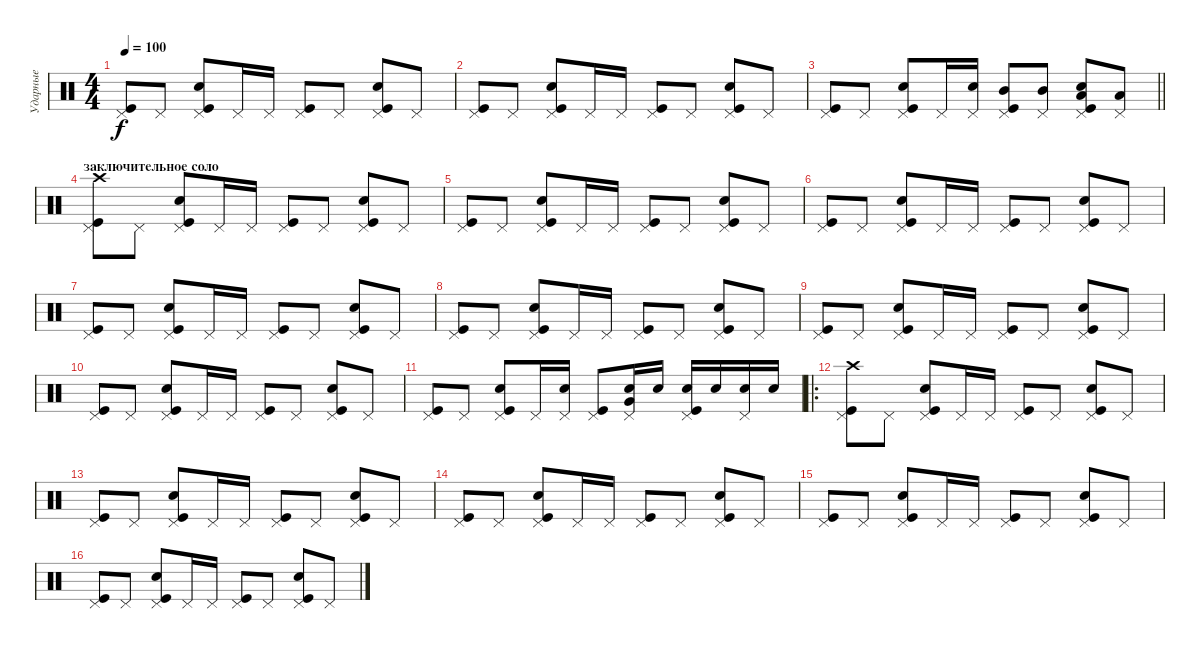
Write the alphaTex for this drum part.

\track ("Ударные" "Ударные") {instrument percussion}
\staff {score}
\articulation defaults
\ts (4 4)
\tempo 100
\clef neutral
\ks c
("Kick (hit)" "Pedal Hi-Hat (hit)").8{dy f} "Pedal Hi-Hat (hit)".8 ("Kick (hit)" "Snare (hit) 2" "Pedal Hi-Hat (hit)").8 "Pedal Hi-Hat (hit)".16 "Pedal Hi-Hat (hit)".16 ("Kick (hit)" "Pedal Hi-Hat (hit)").8 "Pedal Hi-Hat (hit)".8 ("Kick (hit)" "Snare (hit) 2" "Pedal Hi-Hat (hit)").8 "Pedal Hi-Hat (hit)".8 |
("Pedal Hi-Hat (hit)" "Kick (hit)").8 "Pedal Hi-Hat (hit)".8 ("Pedal Hi-Hat (hit)" "Kick (hit)" "Snare (hit) 2").8 "Pedal Hi-Hat (hit)".16 "Pedal Hi-Hat (hit)".16 ("Pedal Hi-Hat (hit)" "Kick (hit)").8 "Pedal Hi-Hat (hit)".8 ("Pedal Hi-Hat (hit)" "Kick (hit)" "Snare (hit) 2").8 "Pedal Hi-Hat (hit)".8 |
\barLineRight lightlight
("Pedal Hi-Hat (hit)" "Kick (hit)").8 "Pedal Hi-Hat (hit)".8 ("Pedal Hi-Hat (hit)" "Kick (hit)" "Snare (hit) 2").8 "Pedal Hi-Hat (hit)".16 ("Pedal Hi-Hat (hit)" "Snare (hit) 2").16 ("Pedal Hi-Hat (hit)" "Kick (hit)" "Mid Tom (hit)").8 ("Pedal Hi-Hat (hit)" "Mid Tom (hit)").8 ("Pedal Hi-Hat (hit)" "Kick (hit)" "Snare (hit) 2" "Low Tom (hit)").8 ("Pedal Hi-Hat (hit)" "Low Tom (hit)").8 |
\section ("" "заключительное соло")
("Pedal Hi-Hat (hit)" "Kick (hit)" "Crash high (hit)").8 "Pedal Hi-Hat (hit)".8 ("Pedal Hi-Hat (hit)" "Kick (hit)" "Snare (hit) 2").8 "Pedal Hi-Hat (hit)".16 "Pedal Hi-Hat (hit)".16 ("Pedal Hi-Hat (hit)" "Kick (hit)").8 "Pedal Hi-Hat (hit)".8 ("Pedal Hi-Hat (hit)" "Kick (hit)" "Snare (hit) 2").8 "Pedal Hi-Hat (hit)".8 |
("Pedal Hi-Hat (hit)" "Kick (hit)").8 "Pedal Hi-Hat (hit)".8 ("Pedal Hi-Hat (hit)" "Kick (hit)" "Snare (hit) 2").8 "Pedal Hi-Hat (hit)".16 "Pedal Hi-Hat (hit)".16 ("Pedal Hi-Hat (hit)" "Kick (hit)").8 "Pedal Hi-Hat (hit)".8 ("Pedal Hi-Hat (hit)" "Kick (hit)" "Snare (hit) 2").8 "Pedal Hi-Hat (hit)".8 |
("Pedal Hi-Hat (hit)" "Kick (hit)").8 "Pedal Hi-Hat (hit)".8 ("Pedal Hi-Hat (hit)" "Kick (hit)" "Snare (hit) 2").8 "Pedal Hi-Hat (hit)".16 "Pedal Hi-Hat (hit)".16 ("Pedal Hi-Hat (hit)" "Kick (hit)").8 "Pedal Hi-Hat (hit)".8 ("Pedal Hi-Hat (hit)" "Kick (hit)" "Snare (hit) 2").8 "Pedal Hi-Hat (hit)".8 |
("Pedal Hi-Hat (hit)" "Kick (hit)").8 "Pedal Hi-Hat (hit)".8 ("Pedal Hi-Hat (hit)" "Kick (hit)" "Snare (hit) 2").8 "Pedal Hi-Hat (hit)".16 "Pedal Hi-Hat (hit)".16 ("Pedal Hi-Hat (hit)" "Kick (hit)").8 "Pedal Hi-Hat (hit)".8 ("Pedal Hi-Hat (hit)" "Kick (hit)" "Snare (hit) 2").8 "Pedal Hi-Hat (hit)".8 |
("Pedal Hi-Hat (hit)" "Kick (hit)").8 "Pedal Hi-Hat (hit)".8 ("Pedal Hi-Hat (hit)" "Kick (hit)" "Snare (hit) 2").8 "Pedal Hi-Hat (hit)".16 "Pedal Hi-Hat (hit)".16 ("Pedal Hi-Hat (hit)" "Kick (hit)").8 "Pedal Hi-Hat (hit)".8 ("Pedal Hi-Hat (hit)" "Kick (hit)" "Snare (hit) 2").8 "Pedal Hi-Hat (hit)".8 |
("Pedal Hi-Hat (hit)" "Kick (hit)").8 "Pedal Hi-Hat (hit)".8 ("Pedal Hi-Hat (hit)" "Kick (hit)" "Snare (hit) 2").8 "Pedal Hi-Hat (hit)".16 "Pedal Hi-Hat (hit)".16 ("Pedal Hi-Hat (hit)" "Kick (hit)").8 "Pedal Hi-Hat (hit)".8 ("Pedal Hi-Hat (hit)" "Kick (hit)" "Snare (hit) 2").8 "Pedal Hi-Hat (hit)".8 |
("Kick (hit)" "Pedal Hi-Hat (hit)").8 "Pedal Hi-Hat (hit)".8 ("Kick (hit)" "Snare (hit) 2" "Pedal Hi-Hat (hit)").8 "Pedal Hi-Hat (hit)".16 "Pedal Hi-Hat (hit)".16 ("Kick (hit)" "Pedal Hi-Hat (hit)").8 "Pedal Hi-Hat (hit)".8 ("Kick (hit)" "Snare (hit) 2" "Pedal Hi-Hat (hit)").8 "Pedal Hi-Hat (hit)".8 |
("Kick (hit)" "Pedal Hi-Hat (hit)").8 "Pedal Hi-Hat (hit)".8 ("Kick (hit)" "Snare (hit) 2" "Pedal Hi-Hat (hit)").8 "Pedal Hi-Hat (hit)".16 ("Snare (hit) 2" "Pedal Hi-Hat (hit)").16 ("Kick (hit)" "Pedal Hi-Hat (hit)").8 ("Snare (hit) 2" "Very Low Tom (hit)" "Pedal Hi-Hat (hit)").16 "Snare (hit) 2".16 ("Snare (hit) 2" "Kick (hit)" "Pedal Hi-Hat (hit)").16 "Snare (hit) 2".16 ("Snare (hit) 2" "Pedal Hi-Hat (hit)").16 "Snare (hit) 2".16 |
\ro
("Kick (hit)" "Crash high (hit)" "Pedal Hi-Hat (hit)").8 "Pedal Hi-Hat (hit)".8 ("Kick (hit)" "Snare (hit) 2" "Pedal Hi-Hat (hit)").8 "Pedal Hi-Hat (hit)".16 "Pedal Hi-Hat (hit)".16 ("Kick (hit)" "Pedal Hi-Hat (hit)").8 "Pedal Hi-Hat (hit)".8 ("Snare (hit) 2" "Kick (hit)" "Pedal Hi-Hat (hit)").8 "Pedal Hi-Hat (hit)".8 |
("Kick (hit)" "Pedal Hi-Hat (hit)").8 "Pedal Hi-Hat (hit)".8 ("Kick (hit)" "Snare (hit) 2" "Pedal Hi-Hat (hit)").8 "Pedal Hi-Hat (hit)".16 "Pedal Hi-Hat (hit)".16 ("Kick (hit)" "Pedal Hi-Hat (hit)").8 "Pedal Hi-Hat (hit)".8 ("Kick (hit)" "Snare (hit) 2" "Pedal Hi-Hat (hit)").8 "Pedal Hi-Hat (hit)".8 |
("Kick (hit)" "Pedal Hi-Hat (hit)").8 "Pedal Hi-Hat (hit)".8 ("Kick (hit)" "Snare (hit) 2" "Pedal Hi-Hat (hit)").8 "Pedal Hi-Hat (hit)".16 "Pedal Hi-Hat (hit)".16 ("Kick (hit)" "Pedal Hi-Hat (hit)").8 "Pedal Hi-Hat (hit)".8 ("Snare (hit) 2" "Kick (hit)" "Pedal Hi-Hat (hit)").8 "Pedal Hi-Hat (hit)".8 |
("Kick (hit)" "Pedal Hi-Hat (hit)").8 "Pedal Hi-Hat (hit)".8 ("Kick (hit)" "Snare (hit) 2" "Pedal Hi-Hat (hit)").8 "Pedal Hi-Hat (hit)".16 "Pedal Hi-Hat (hit)".16 ("Kick (hit)" "Pedal Hi-Hat (hit)").8 "Pedal Hi-Hat (hit)".8 ("Kick (hit)" "Snare (hit) 2" "Pedal Hi-Hat (hit)").8 "Pedal Hi-Hat (hit)".8 |
("Kick (hit)" "Pedal Hi-Hat (hit)").8 "Pedal Hi-Hat (hit)".8 ("Kick (hit)" "Snare (hit) 2" "Pedal Hi-Hat (hit)").8 "Pedal Hi-Hat (hit)".16 "Pedal Hi-Hat (hit)".16 ("Kick (hit)" "Pedal Hi-Hat (hit)").8 "Pedal Hi-Hat (hit)".8 ("Kick (hit)" "Snare (hit) 2" "Pedal Hi-Hat (hit)").8 "Pedal Hi-Hat (hit)".8
